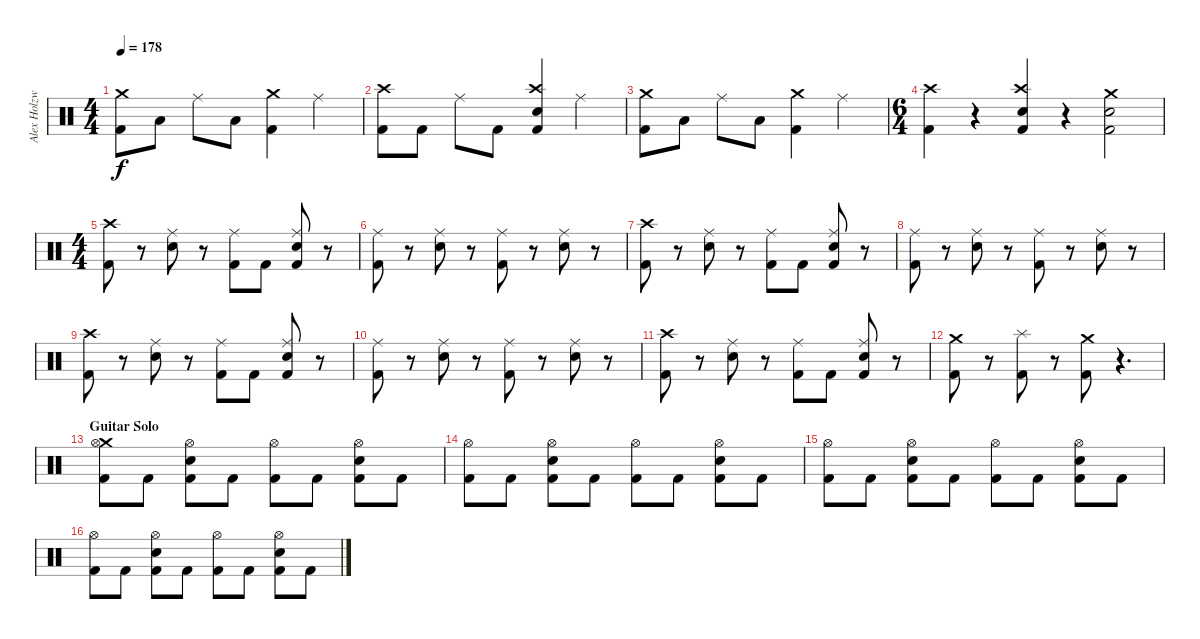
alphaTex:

\track ("Alex Holzwarth" "Alex Holzw") {instrument percussion}
\staff {score}
\articulation defaults
\ts (4 4)
\tempo 178
\clef neutral
\ks c
("Crash medium (hit)" "Kick (hit) 2").8{dy f} "Low Tom (hit)".8 "Ride (middle)".8 "Low Floor Tom (hit)".8 ("Crash medium (hit)" "Kick (hit) 2").4 "Ride (middle)".4 |
("Crash high (hit)" "Kick (hit) 2").8 "Kick (hit) 2".8 "Ride (middle)".8 "Kick (hit) 2".8 ("Crash high (hit)" "Snare (hit) 2" "Kick (hit) 2").4 "Ride (middle)".4 |
("Crash medium (hit)" "Kick (hit) 2").8 "Low Tom (hit)".8 "Ride (middle)".8 "Low Floor Tom (hit)".8 ("Crash medium (hit)" "Kick (hit) 2").4 "Ride (middle)".4 |
\ts (6 4)
("Crash high (hit)" "Kick (hit) 2").4 r.4 ("Crash high (hit)" "Snare (hit) 2" "Kick (hit) 2").4 r.4 ("Crash medium (hit)" "Snare (hit) 2" "Kick (hit) 2").2 |
\ts (4 4)
("Crash high (hit)" "Kick (hit) 2").8 r.8 ("Ride (middle)" "Snare (hit) 2").8 r.8 ("Ride (middle)" "Kick (hit) 2").8 "Kick (hit) 2".8 ("Ride (middle)" "Snare (hit) 2" "Kick (hit) 2").8 r.8 |
("Ride (middle)" "Kick (hit) 2").8 r.8 ("Ride (middle)" "Snare (hit) 2").8 r.8 ("Ride (middle)" "Kick (hit) 2").8 r.8 ("Ride (middle)" "Snare (hit) 2").8 r.8 |
("Crash high (hit)" "Kick (hit) 2").8 r.8 ("Ride (middle)" "Snare (hit) 2").8 r.8 ("Ride (middle)" "Kick (hit) 2").8 "Kick (hit) 2".8 ("Ride (middle)" "Snare (hit) 2" "Kick (hit) 2").8 r.8 |
("Ride (middle)" "Kick (hit) 2").8 r.8 ("Ride (middle)" "Snare (hit) 2").8 r.8 ("Ride (middle)" "Kick (hit) 2").8 r.8 ("Ride (middle)" "Snare (hit) 2").8 r.8 |
("Crash high (hit)" "Kick (hit) 2").8 r.8 ("Ride (middle)" "Snare (hit) 2").8 r.8 ("Ride (middle)" "Kick (hit) 2").8 "Kick (hit) 2".8 ("Ride (middle)" "Snare (hit) 2" "Kick (hit) 2").8 r.8 |
("Ride (middle)" "Kick (hit) 2").8 r.8 ("Ride (middle)" "Snare (hit) 2").8 r.8 ("Ride (middle)" "Kick (hit) 2").8 r.8 ("Ride (middle)" "Snare (hit) 2").8 r.8 |
("Crash high (hit)" "Kick (hit) 2").8 r.8 ("Ride (middle)" "Snare (hit) 2").8 r.8 ("Ride (middle)" "Kick (hit) 2").8 "Kick (hit) 2".8 ("Ride (middle)" "Snare (hit) 2" "Kick (hit) 2").8 r.8 |
("Crash medium (hit)" "Kick (hit) 2").8 r.8 ("Splash (hit)" "Kick (hit) 2").8 r.8 ("Crash medium (hit)" "Kick (hit) 2").8 r.4{d} |
\section ("" "Guitar Solo")
("Crash medium (hit)" "Hi-Hat (open)" "Kick (hit) 2").8 "Kick (hit) 2".8 ("Hi-Hat (open)" "Snare (hit) 2" "Kick (hit) 2").8 "Kick (hit) 2".8 ("Hi-Hat (open)" "Kick (hit) 2").8 "Kick (hit) 2".8 ("Hi-Hat (open)" "Snare (hit) 2" "Kick (hit) 2").8 "Kick (hit) 2".8 |
("Hi-Hat (open)" "Kick (hit) 2").8 "Kick (hit) 2".8 ("Hi-Hat (open)" "Snare (hit) 2" "Kick (hit) 2").8 "Kick (hit) 2".8 ("Hi-Hat (open)" "Kick (hit) 2").8 "Kick (hit) 2".8 ("Hi-Hat (open)" "Snare (hit) 2" "Kick (hit) 2").8 "Kick (hit) 2".8 |
("Hi-Hat (open)" "Kick (hit) 2").8 "Kick (hit) 2".8 ("Hi-Hat (open)" "Snare (hit) 2" "Kick (hit) 2").8 "Kick (hit) 2".8 ("Hi-Hat (open)" "Kick (hit) 2").8 "Kick (hit) 2".8 ("Hi-Hat (open)" "Snare (hit) 2" "Kick (hit) 2").8 "Kick (hit) 2".8 |
("Hi-Hat (open)" "Kick (hit) 2").8 "Kick (hit) 2".8 ("Hi-Hat (open)" "Snare (hit) 2" "Kick (hit) 2").8 "Kick (hit) 2".8 ("Hi-Hat (open)" "Kick (hit) 2").8 "Kick (hit) 2".8 ("Hi-Hat (open)" "Snare (hit) 2" "Kick (hit) 2").8 "Kick (hit) 2".8
